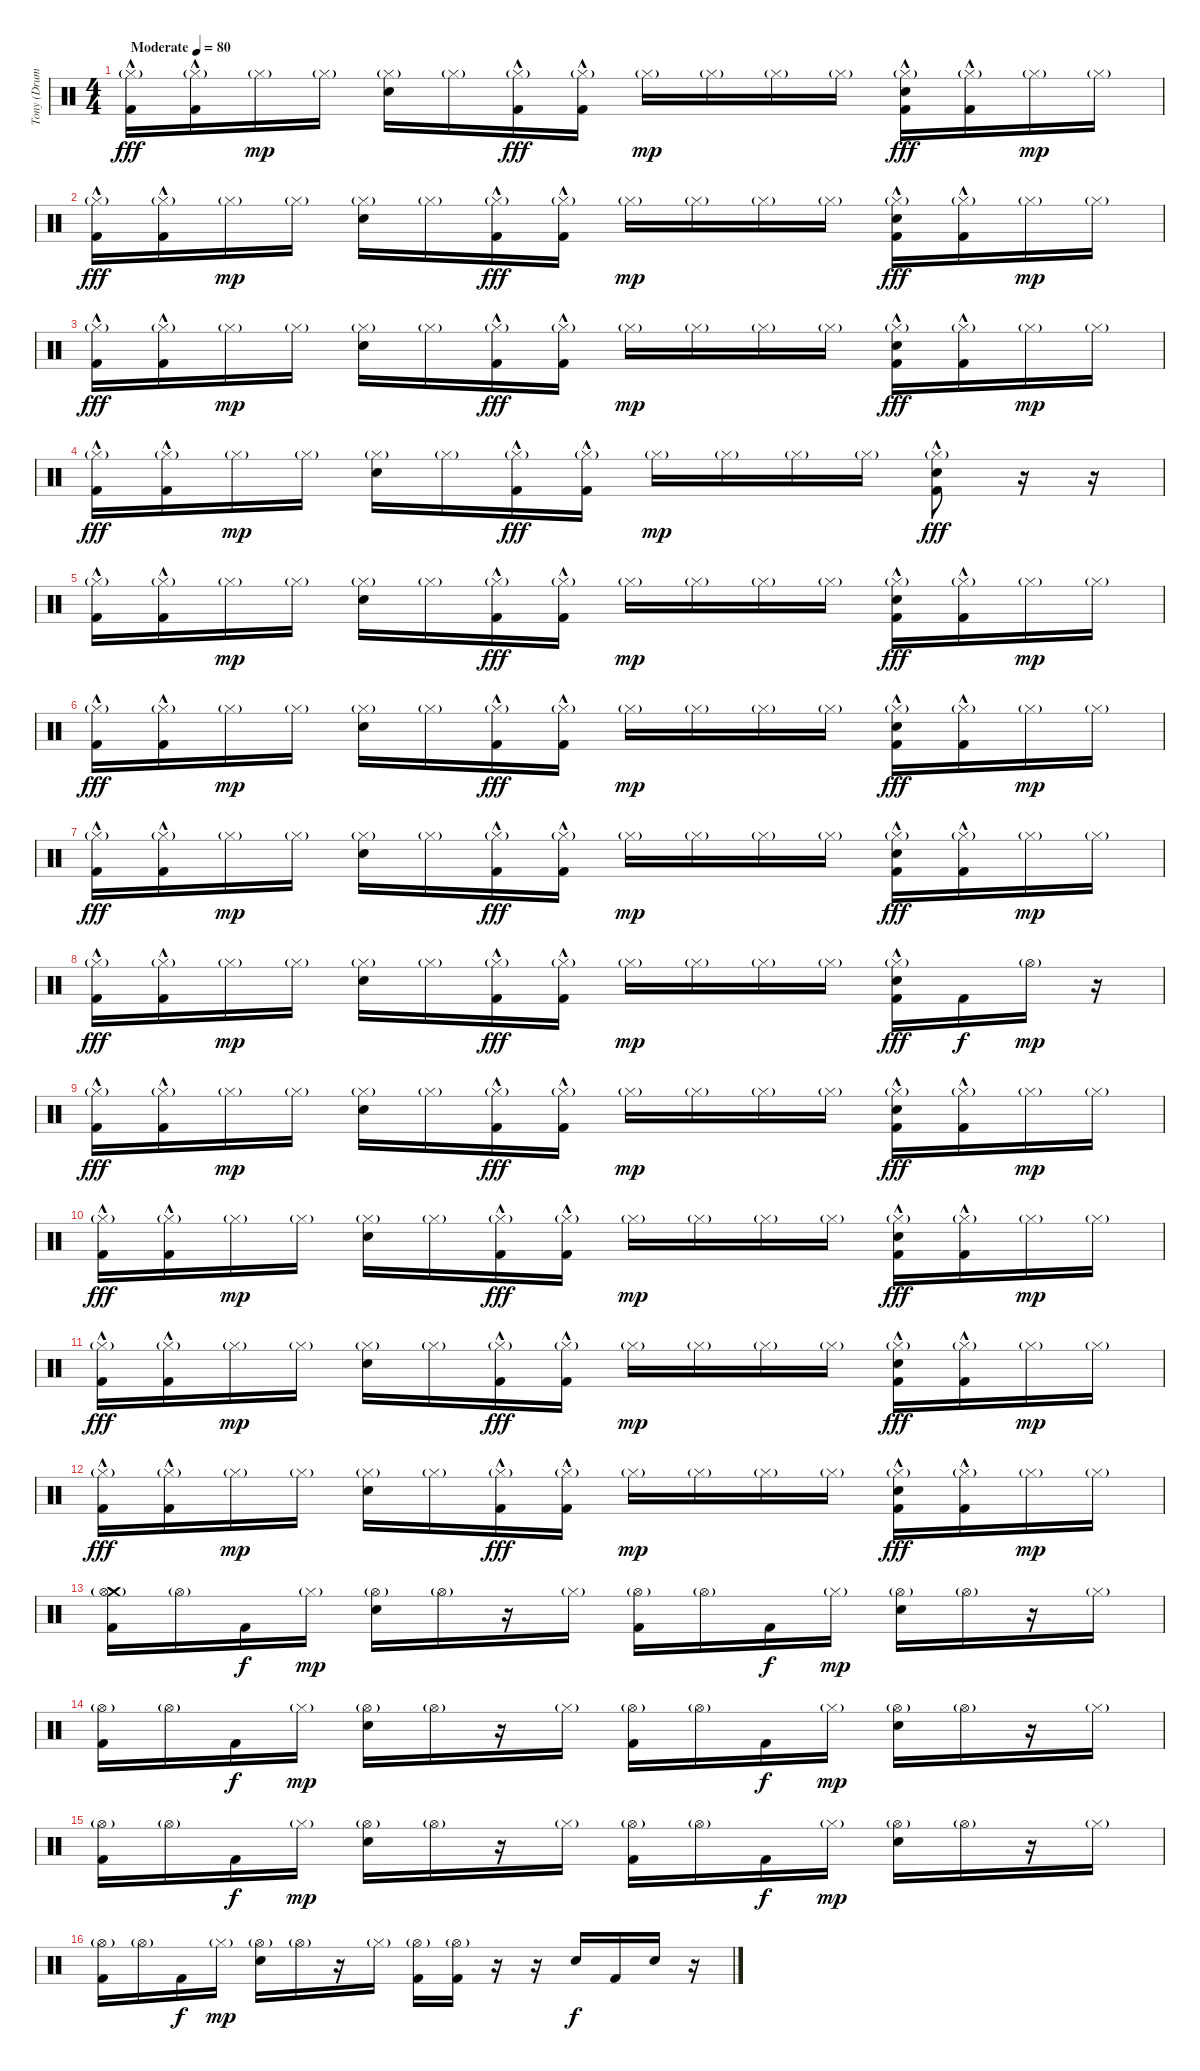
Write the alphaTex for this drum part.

\track ("Tony (Drums)" "Tony (Drum") {instrument percussion}
\staff {score}
\articulation defaults
\ts (4 4)
\tempo (80 "Moderate")
\clef neutral
\ks c
("Hi-Hat (closed)"{g} "Kick (hit) 2"{hac}).16{dy fff} ("Hi-Hat (closed)"{g} "Kick (hit) 2"{hac}).16 "Hi-Hat (closed)"{g}.16{dy mp} "Hi-Hat (closed)"{g}.16 ("Hi-Hat (closed)"{g} "Snare (hit) 2").16 "Hi-Hat (closed)"{g}.16 ("Hi-Hat (closed)"{g} "Kick (hit) 2"{hac}).16{dy fff} ("Hi-Hat (closed)"{g} "Kick (hit) 2"{hac}).16 "Hi-Hat (closed)"{g}.16{dy mp} "Hi-Hat (closed)"{g}.16 "Hi-Hat (closed)"{g}.16 "Hi-Hat (closed)"{g}.16 ("Hi-Hat (closed)"{g} "Snare (hit) 2" "Kick (hit) 2"{hac}).16{dy fff} ("Hi-Hat (closed)"{g} "Kick (hit) 2"{hac}).16 "Hi-Hat (closed)"{g}.16{dy mp} "Hi-Hat (closed)"{g}.16 |
("Hi-Hat (closed)"{g} "Kick (hit) 2"{hac}).16{dy fff} ("Hi-Hat (closed)"{g} "Kick (hit) 2"{hac}).16 "Hi-Hat (closed)"{g}.16{dy mp} "Hi-Hat (closed)"{g}.16 ("Hi-Hat (closed)"{g} "Snare (hit) 2").16 "Hi-Hat (closed)"{g}.16 ("Hi-Hat (closed)"{g} "Kick (hit) 2"{hac}).16{dy fff} ("Hi-Hat (closed)"{g} "Kick (hit) 2"{hac}).16 "Hi-Hat (closed)"{g}.16{dy mp} "Hi-Hat (closed)"{g}.16 "Hi-Hat (closed)"{g}.16 "Hi-Hat (closed)"{g}.16 ("Hi-Hat (closed)"{g} "Snare (hit) 2" "Kick (hit) 2"{hac}).16{dy fff} ("Hi-Hat (closed)"{g} "Kick (hit) 2"{hac}).16 "Hi-Hat (closed)"{g}.16{dy mp} "Hi-Hat (closed)"{g}.16 |
("Hi-Hat (closed)"{g} "Kick (hit) 2"{hac}).16{dy fff} ("Hi-Hat (closed)"{g} "Kick (hit) 2"{hac}).16 "Hi-Hat (closed)"{g}.16{dy mp} "Hi-Hat (closed)"{g}.16 ("Hi-Hat (closed)"{g} "Snare (hit) 2").16 "Hi-Hat (closed)"{g}.16 ("Hi-Hat (closed)"{g} "Kick (hit) 2"{hac}).16{dy fff} ("Hi-Hat (closed)"{g} "Kick (hit) 2"{hac}).16 "Hi-Hat (closed)"{g}.16{dy mp} "Hi-Hat (closed)"{g}.16 "Hi-Hat (closed)"{g}.16 "Hi-Hat (closed)"{g}.16 ("Hi-Hat (closed)"{g} "Snare (hit) 2" "Kick (hit) 2"{hac}).16{dy fff} ("Hi-Hat (closed)"{g} "Kick (hit) 2"{hac}).16 "Hi-Hat (closed)"{g}.16{dy mp} "Hi-Hat (closed)"{g}.16 |
("Hi-Hat (closed)"{g} "Kick (hit) 2"{hac}).16{dy fff} ("Hi-Hat (closed)"{g} "Kick (hit) 2"{hac}).16 "Hi-Hat (closed)"{g}.16{dy mp} "Hi-Hat (closed)"{g}.16 ("Hi-Hat (closed)"{g} "Snare (hit) 2").16 "Hi-Hat (closed)"{g}.16 ("Hi-Hat (closed)"{g} "Kick (hit) 2"{hac}).16{dy fff} ("Hi-Hat (closed)"{g} "Kick (hit) 2"{hac}).16 "Hi-Hat (closed)"{g}.16{dy mp} "Hi-Hat (closed)"{g}.16 "Hi-Hat (closed)"{g}.16 "Hi-Hat (closed)"{g}.16 ("Hi-Hat (closed)"{g} "Snare (hit) 2" "Kick (hit) 2"{hac}).8{dy fff} r.16 r.16 |
("Hi-Hat (closed)"{g} "Kick (hit) 2"{hac}).16 ("Hi-Hat (closed)"{g} "Kick (hit) 2"{hac}).16 "Hi-Hat (closed)"{g}.16{dy mp} "Hi-Hat (closed)"{g}.16 ("Hi-Hat (closed)"{g} "Snare (hit) 2").16 "Hi-Hat (closed)"{g}.16 ("Hi-Hat (closed)"{g} "Kick (hit) 2"{hac}).16{dy fff} ("Hi-Hat (closed)"{g} "Kick (hit) 2"{hac}).16 "Hi-Hat (closed)"{g}.16{dy mp} "Hi-Hat (closed)"{g}.16 "Hi-Hat (closed)"{g}.16 "Hi-Hat (closed)"{g}.16 ("Hi-Hat (closed)"{g} "Snare (hit) 2" "Kick (hit) 2"{hac}).16{dy fff} ("Hi-Hat (closed)"{g} "Kick (hit) 2"{hac}).16 "Hi-Hat (closed)"{g}.16{dy mp} "Hi-Hat (closed)"{g}.16 |
("Hi-Hat (closed)"{g} "Kick (hit) 2"{hac}).16{dy fff} ("Hi-Hat (closed)"{g} "Kick (hit) 2"{hac}).16 "Hi-Hat (closed)"{g}.16{dy mp} "Hi-Hat (closed)"{g}.16 ("Hi-Hat (closed)"{g} "Snare (hit) 2").16 "Hi-Hat (closed)"{g}.16 ("Hi-Hat (closed)"{g} "Kick (hit) 2"{hac}).16{dy fff} ("Hi-Hat (closed)"{g} "Kick (hit) 2"{hac}).16 "Hi-Hat (closed)"{g}.16{dy mp} "Hi-Hat (closed)"{g}.16 "Hi-Hat (closed)"{g}.16 "Hi-Hat (closed)"{g}.16 ("Hi-Hat (closed)"{g} "Snare (hit) 2" "Kick (hit) 2"{hac}).16{dy fff} ("Hi-Hat (closed)"{g} "Kick (hit) 2"{hac}).16 "Hi-Hat (closed)"{g}.16{dy mp} "Hi-Hat (closed)"{g}.16 |
("Hi-Hat (closed)"{g} "Kick (hit) 2"{hac}).16{dy fff} ("Hi-Hat (closed)"{g} "Kick (hit) 2"{hac}).16 "Hi-Hat (closed)"{g}.16{dy mp} "Hi-Hat (closed)"{g}.16 ("Hi-Hat (closed)"{g} "Snare (hit) 2").16 "Hi-Hat (closed)"{g}.16 ("Hi-Hat (closed)"{g} "Kick (hit) 2"{hac}).16{dy fff} ("Hi-Hat (closed)"{g} "Kick (hit) 2"{hac}).16 "Hi-Hat (closed)"{g}.16{dy mp} "Hi-Hat (closed)"{g}.16 "Hi-Hat (closed)"{g}.16 "Hi-Hat (closed)"{g}.16 ("Hi-Hat (closed)"{g} "Snare (hit) 2" "Kick (hit) 2"{hac}).16{dy fff} ("Hi-Hat (closed)"{g} "Kick (hit) 2"{hac}).16 "Hi-Hat (closed)"{g}.16{dy mp} "Hi-Hat (closed)"{g}.16 |
("Hi-Hat (closed)"{g} "Kick (hit) 2"{hac}).16{dy fff} ("Hi-Hat (closed)"{g} "Kick (hit) 2"{hac}).16 "Hi-Hat (closed)"{g}.16{dy mp} "Hi-Hat (closed)"{g}.16 ("Hi-Hat (closed)"{g} "Snare (hit) 2").16 "Hi-Hat (closed)"{g}.16 ("Hi-Hat (closed)"{g} "Kick (hit) 2"{hac}).16{dy fff} ("Hi-Hat (closed)"{g} "Kick (hit) 2"{hac}).16 "Hi-Hat (closed)"{g}.16{dy mp} "Hi-Hat (closed)"{g}.16 "Hi-Hat (closed)"{g}.16 "Hi-Hat (closed)"{g}.16 ("Hi-Hat (closed)"{g} "Snare (hit) 2" "Kick (hit) 2"{hac}).16{dy fff} "Kick (hit) 2".16{dy f} "Hi-Hat (open)"{g}.16{dy mp} r.16 |
("Hi-Hat (closed)"{g} "Kick (hit) 2"{hac}).16{dy fff} ("Hi-Hat (closed)"{g} "Kick (hit) 2"{hac}).16 "Hi-Hat (closed)"{g}.16{dy mp} "Hi-Hat (closed)"{g}.16 ("Hi-Hat (closed)"{g} "Snare (hit) 2").16 "Hi-Hat (closed)"{g}.16 ("Hi-Hat (closed)"{g} "Kick (hit) 2"{hac}).16{dy fff} ("Hi-Hat (closed)"{g} "Kick (hit) 2"{hac}).16 "Hi-Hat (closed)"{g}.16{dy mp} "Hi-Hat (closed)"{g}.16 "Hi-Hat (closed)"{g}.16 "Hi-Hat (closed)"{g}.16 ("Hi-Hat (closed)"{g} "Snare (hit) 2" "Kick (hit) 2"{hac}).16{dy fff} ("Hi-Hat (closed)"{g} "Kick (hit) 2"{hac}).16 "Hi-Hat (closed)"{g}.16{dy mp} "Hi-Hat (closed)"{g}.16 |
("Hi-Hat (closed)"{g} "Kick (hit) 2"{hac}).16{dy fff} ("Hi-Hat (closed)"{g} "Kick (hit) 2"{hac}).16 "Hi-Hat (closed)"{g}.16{dy mp} "Hi-Hat (closed)"{g}.16 ("Hi-Hat (closed)"{g} "Snare (hit) 2").16 "Hi-Hat (closed)"{g}.16 ("Hi-Hat (closed)"{g} "Kick (hit) 2"{hac}).16{dy fff} ("Hi-Hat (closed)"{g} "Kick (hit) 2"{hac}).16 "Hi-Hat (closed)"{g}.16{dy mp} "Hi-Hat (closed)"{g}.16 "Hi-Hat (closed)"{g}.16 "Hi-Hat (closed)"{g}.16 ("Hi-Hat (closed)"{g} "Snare (hit) 2" "Kick (hit) 2"{hac}).16{dy fff} ("Hi-Hat (closed)"{g} "Kick (hit) 2"{hac}).16 "Hi-Hat (closed)"{g}.16{dy mp} "Hi-Hat (closed)"{g}.16 |
("Hi-Hat (closed)"{g} "Kick (hit) 2"{hac}).16{dy fff} ("Hi-Hat (closed)"{g} "Kick (hit) 2"{hac}).16 "Hi-Hat (closed)"{g}.16{dy mp} "Hi-Hat (closed)"{g}.16 ("Hi-Hat (closed)"{g} "Snare (hit) 2").16 "Hi-Hat (closed)"{g}.16 ("Hi-Hat (closed)"{g} "Kick (hit) 2"{hac}).16{dy fff} ("Hi-Hat (closed)"{g} "Kick (hit) 2"{hac}).16 "Hi-Hat (closed)"{g}.16{dy mp} "Hi-Hat (closed)"{g}.16 "Hi-Hat (closed)"{g}.16 "Hi-Hat (closed)"{g}.16 ("Hi-Hat (closed)"{g} "Snare (hit) 2" "Kick (hit) 2"{hac}).16{dy fff} ("Hi-Hat (closed)"{g} "Kick (hit) 2"{hac}).16 "Hi-Hat (closed)"{g}.16{dy mp} "Hi-Hat (closed)"{g}.16 |
("Hi-Hat (closed)"{g} "Kick (hit) 2"{hac}).16{dy fff} ("Hi-Hat (closed)"{g} "Kick (hit) 2"{hac}).16 "Hi-Hat (closed)"{g}.16{dy mp} "Hi-Hat (closed)"{g}.16 ("Hi-Hat (closed)"{g} "Snare (hit) 2").16 "Hi-Hat (closed)"{g}.16 ("Hi-Hat (closed)"{g} "Kick (hit) 2"{hac}).16{dy fff} ("Hi-Hat (closed)"{g} "Kick (hit) 2"{hac}).16 "Hi-Hat (closed)"{g}.16{dy mp} "Hi-Hat (closed)"{g}.16 "Hi-Hat (closed)"{g}.16 "Hi-Hat (closed)"{g}.16 ("Hi-Hat (closed)"{g} "Snare (hit) 2" "Kick (hit) 2"{hac}).16{dy fff} ("Hi-Hat (closed)"{g} "Kick (hit) 2"{hac}).16 "Hi-Hat (closed)"{g}.16{dy mp} "Hi-Hat (closed)"{g}.16 |
("Crash medium (hit)" "Hi-Hat (open)"{g} "Kick (hit) 2").16 "Hi-Hat (open)"{g}.16 "Kick (hit) 2".16{dy f} "Hi-Hat (closed)"{g}.16{dy mp} ("Hi-Hat (open)"{g} "Snare (hit) 2").16 "Hi-Hat (open)"{g}.16 r.16 "Hi-Hat (closed)"{g}.16 ("Hi-Hat (open)"{g} "Kick (hit) 2").16 "Hi-Hat (open)"{g}.16 "Kick (hit) 2".16{dy f} "Hi-Hat (closed)"{g}.16{dy mp} ("Hi-Hat (open)"{g} "Snare (hit) 2").16 "Hi-Hat (open)"{g}.16 r.16 "Hi-Hat (closed)"{g}.16 |
("Hi-Hat (open)"{g} "Kick (hit) 2").16 "Hi-Hat (open)"{g}.16 "Kick (hit) 2".16{dy f} "Hi-Hat (closed)"{g}.16{dy mp} ("Hi-Hat (open)"{g} "Snare (hit) 2").16 "Hi-Hat (open)"{g}.16 r.16 "Hi-Hat (closed)"{g}.16 ("Hi-Hat (open)"{g} "Kick (hit) 2").16 "Hi-Hat (open)"{g}.16 "Kick (hit) 2".16{dy f} "Hi-Hat (closed)"{g}.16{dy mp} ("Hi-Hat (open)"{g} "Snare (hit) 2").16 "Hi-Hat (open)"{g}.16 r.16 "Hi-Hat (closed)"{g}.16 |
("Hi-Hat (open)"{g} "Kick (hit) 2").16 "Hi-Hat (open)"{g}.16 "Kick (hit) 2".16{dy f} "Hi-Hat (closed)"{g}.16{dy mp} ("Hi-Hat (open)"{g} "Snare (hit) 2").16 "Hi-Hat (open)"{g}.16 r.16 "Hi-Hat (closed)"{g}.16 ("Hi-Hat (open)"{g} "Kick (hit) 2").16 "Hi-Hat (open)"{g}.16 "Kick (hit) 2".16{dy f} "Hi-Hat (closed)"{g}.16{dy mp} ("Hi-Hat (open)"{g} "Snare (hit) 2").16 "Hi-Hat (open)"{g}.16 r.16 "Hi-Hat (closed)"{g}.16 |
("Hi-Hat (open)"{g} "Kick (hit) 2").16 "Hi-Hat (open)"{g}.16 "Kick (hit) 2".16{dy f} "Hi-Hat (closed)"{g}.16{dy mp} ("Hi-Hat (open)"{g} "Snare (hit) 2").16 "Hi-Hat (open)"{g}.16 r.16 "Hi-Hat (closed)"{g}.16 ("Hi-Hat (open)"{g} "Kick (hit) 2").16 ("Hi-Hat (open)"{g} "Kick (hit) 2").16 r.16 r.16 "Snare (hit) 2".16{dy f} "Kick (hit) 2".16 "Snare (hit) 2".16 r.16
